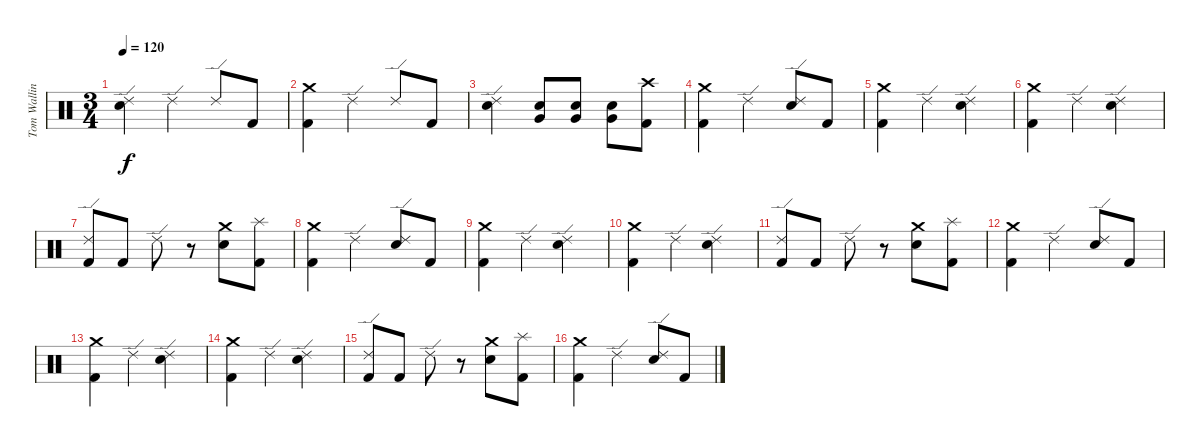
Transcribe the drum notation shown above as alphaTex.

\track ("Tom Walling (Drums)" "Tom Wallin") {instrument percussion}
\staff {score}
\articulation defaults
\ts (3 4)
\tempo 120
\clef neutral
\ks c
("Ride (edge) 2" "Electric Snare (hit)").4{dy f} "Ride (edge) 2".4 "Ride (edge) 2".8 "Kick (hit) 2".8 |
("Crash medium (hit)" "Kick (hit) 2").4 "Ride (edge) 2".4 "Ride (edge) 2".8 "Kick (hit) 2".8 |
("Ride (edge) 2" "Electric Snare (hit)").4 ("Very Low Tom (hit)" "Electric Snare (hit)").8 ("Very Low Tom (hit)" "Electric Snare (hit)").8 ("Very Low Tom (hit)" "Electric Snare (hit)").8 ("Crash high (hit)" "Kick (hit) 2").8 |
("Crash medium (hit)" "Kick (hit) 2").4 "Ride (edge) 2".4 ("Ride (edge) 2" "Electric Snare (hit)").8 "Kick (hit) 2".8 |
("Kick (hit) 2" "Crash medium (hit)").4 "Ride (edge) 2".4 ("Electric Snare (hit)" "Ride (edge) 2").4 |
("Crash medium (hit)" "Kick (hit) 2").4 "Ride (edge) 2".4 ("Ride (edge) 2" "Electric Snare (hit)").4 |
("Ride (edge) 2" "Kick (hit) 2").8 "Kick (hit) 2".8 "Ride (edge) 2".8 r.8 ("Crash medium (hit)" "Electric Snare (hit)").8 ("Splash (hit)" "Kick (hit) 2").8 |
("Crash medium (hit)" "Kick (hit) 2").4 "Ride (edge) 2".4 ("Ride (edge) 2" "Electric Snare (hit)").8 "Kick (hit) 2".8 |
("Kick (hit) 2" "Crash medium (hit)").4 "Ride (edge) 2".4 ("Electric Snare (hit)" "Ride (edge) 2").4 |
("Crash medium (hit)" "Kick (hit) 2").4 "Ride (edge) 2".4 ("Ride (edge) 2" "Electric Snare (hit)").4 |
("Ride (edge) 2" "Kick (hit) 2").8 "Kick (hit) 2".8 "Ride (edge) 2".8 r.8 ("Crash medium (hit)" "Electric Snare (hit)").8 ("Splash (hit)" "Kick (hit) 2").8 |
("Crash medium (hit)" "Kick (hit) 2").4 "Ride (edge) 2".4 ("Ride (edge) 2" "Electric Snare (hit)").8 "Kick (hit) 2".8 |
("Kick (hit) 2" "Crash medium (hit)").4 "Ride (edge) 2".4 ("Electric Snare (hit)" "Ride (edge) 2").4 |
("Crash medium (hit)" "Kick (hit) 2").4 "Ride (edge) 2".4 ("Ride (edge) 2" "Electric Snare (hit)").4 |
("Ride (edge) 2" "Kick (hit) 2").8 "Kick (hit) 2".8 "Ride (edge) 2".8 r.8 ("Crash medium (hit)" "Electric Snare (hit)").8 ("Splash (hit)" "Kick (hit) 2").8 |
("Crash medium (hit)" "Kick (hit) 2").4 "Ride (edge) 2".4 ("Ride (edge) 2" "Electric Snare (hit)").8 "Kick (hit) 2".8
